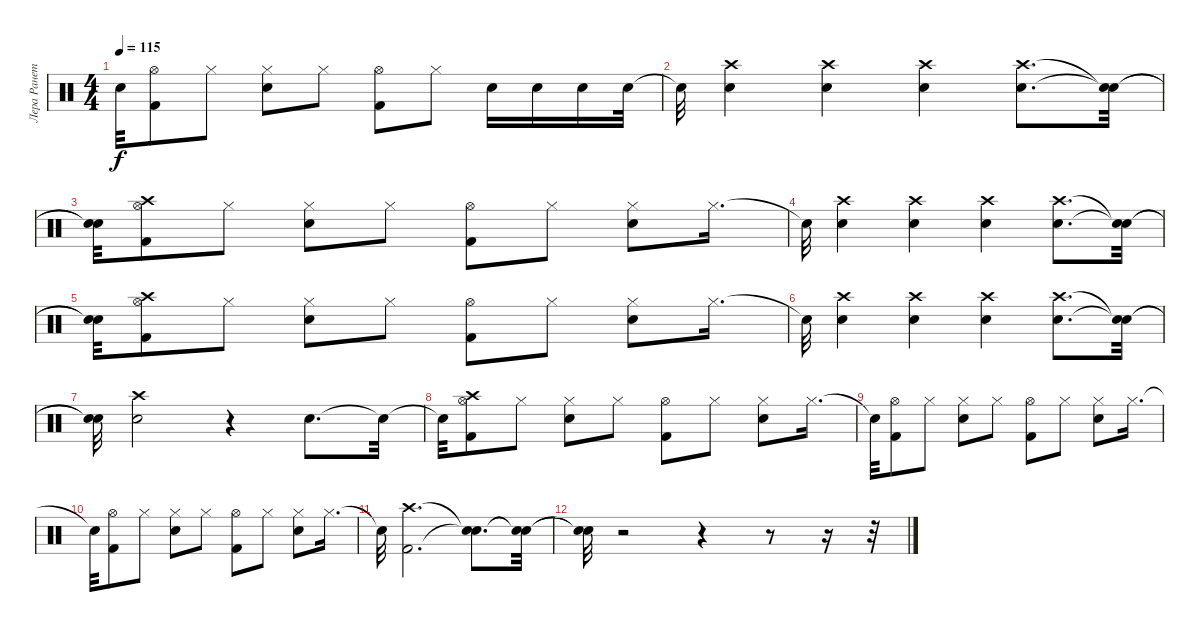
\track ("Лера Ранетка" "Лера Ранет") {instrument percussion}
\staff {score}
\articulation defaults
\ts (4 4)
\tempo 115
\clef neutral
\ks c "Snare (hit)"{t}.32{dy f}
("Hi-Hat (open)" "Kick (hit) 2").8 "Hi-Hat (closed)".8 ("Hi-Hat (closed)" "Electric Snare (hit)").8 "Hi-Hat (closed)".8 ("Hi-Hat (open)" "Kick (hit) 2").8 "Hi-Hat (closed)".8 "Electric Snare (hit)".16 "Electric Snare (hit)".16 "Electric Snare (hit)".16 "Electric Snare (hit)".32 |
"Snare (hit)"{t}.32 ("Electric Snare (hit)" "Crash high (hit)").4 ("Electric Snare (hit)" "Crash high (hit)").4 ("Electric Snare (hit)" "Crash high (hit)").4 ("Electric Snare (hit)" "Crash high (hit)").8{d} ("Snare (hit)"{t} "Snare (hit)"{t}).32 |
("Snare (hit)"{t} "Snare (hit)"{t}).32 ("Hi-Hat (open)" "Kick (hit) 2" "Crash high (hit)").8 "Hi-Hat (closed)".8 ("Hi-Hat (closed)" "Electric Snare (hit)").8 "Hi-Hat (closed)".8 ("Hi-Hat (open)" "Kick (hit) 2").8 "Hi-Hat (closed)".8 ("Hi-Hat (closed)" "Electric Snare (hit)").8 "Hi-Hat (closed)".16{d} |
"Snare (hit)"{t}.32 ("Electric Snare (hit)" "Crash high (hit)").4 ("Electric Snare (hit)" "Crash high (hit)").4 ("Electric Snare (hit)" "Crash high (hit)").4 ("Electric Snare (hit)" "Crash high (hit)").8{d} ("Snare (hit)"{t} "Snare (hit)"{t}).32 |
("Snare (hit)"{t} "Snare (hit)"{t}).32 ("Hi-Hat (open)" "Kick (hit) 2" "Crash high (hit)").8 "Hi-Hat (closed)".8 ("Hi-Hat (closed)" "Electric Snare (hit)").8 "Hi-Hat (closed)".8 ("Hi-Hat (open)" "Kick (hit) 2").8 "Hi-Hat (closed)".8 ("Hi-Hat (closed)" "Electric Snare (hit)").8 "Hi-Hat (closed)".16{d} |
"Snare (hit)"{t}.32 ("Electric Snare (hit)" "Crash high (hit)").4 ("Electric Snare (hit)" "Crash high (hit)").4 ("Electric Snare (hit)" "Crash high (hit)").4 ("Electric Snare (hit)" "Crash high (hit)").8{d} ("Snare (hit)"{t} "Snare (hit)"{t}).32 |
("Snare (hit)"{t} "Snare (hit)"{t}).32 ("Electric Snare (hit)" "Crash high (hit)").2 r.4 "Electric Snare (hit)".8{d} "Snare (hit)"{t}.32 |
"Snare (hit)"{t}.32 ("Hi-Hat (open)" "Kick (hit) 2" "Crash high (hit)").8 "Hi-Hat (closed)".8 ("Hi-Hat (closed)" "Electric Snare (hit)").8 "Hi-Hat (closed)".8 ("Hi-Hat (open)" "Kick (hit) 2").8 "Hi-Hat (closed)".8 ("Hi-Hat (closed)" "Electric Snare (hit)").8 "Hi-Hat (closed)".16{d} |
"Snare (hit)"{t}.32 ("Hi-Hat (open)" "Kick (hit) 2").8 "Hi-Hat (closed)".8 ("Hi-Hat (closed)" "Electric Snare (hit)").8 "Hi-Hat (closed)".8 ("Hi-Hat (open)" "Kick (hit) 2").8 "Hi-Hat (closed)".8 ("Hi-Hat (closed)" "Electric Snare (hit)").8 "Hi-Hat (closed)".16{d} |
"Snare (hit)"{t}.32 ("Hi-Hat (open)" "Kick (hit) 2").8 "Hi-Hat (closed)".8 ("Hi-Hat (closed)" "Electric Snare (hit)").8 "Hi-Hat (closed)".8 ("Hi-Hat (open)" "Kick (hit) 2").8 "Hi-Hat (closed)".8 ("Hi-Hat (closed)" "Electric Snare (hit)").8 "Hi-Hat (closed)".16{d} |
"Snare (hit)"{t}.32 ("Crash high (hit)" "Kick (hit) 2").2{d} ("Snare (hit)"{t} "Snare (hit)"{t}).8{d} ("Snare (hit)"{t} "Snare (hit)"{t}).32 |
("Snare (hit)"{t} "Snare (hit)"{t}).32 r.2 r.4 r.8 r.16 r.32
